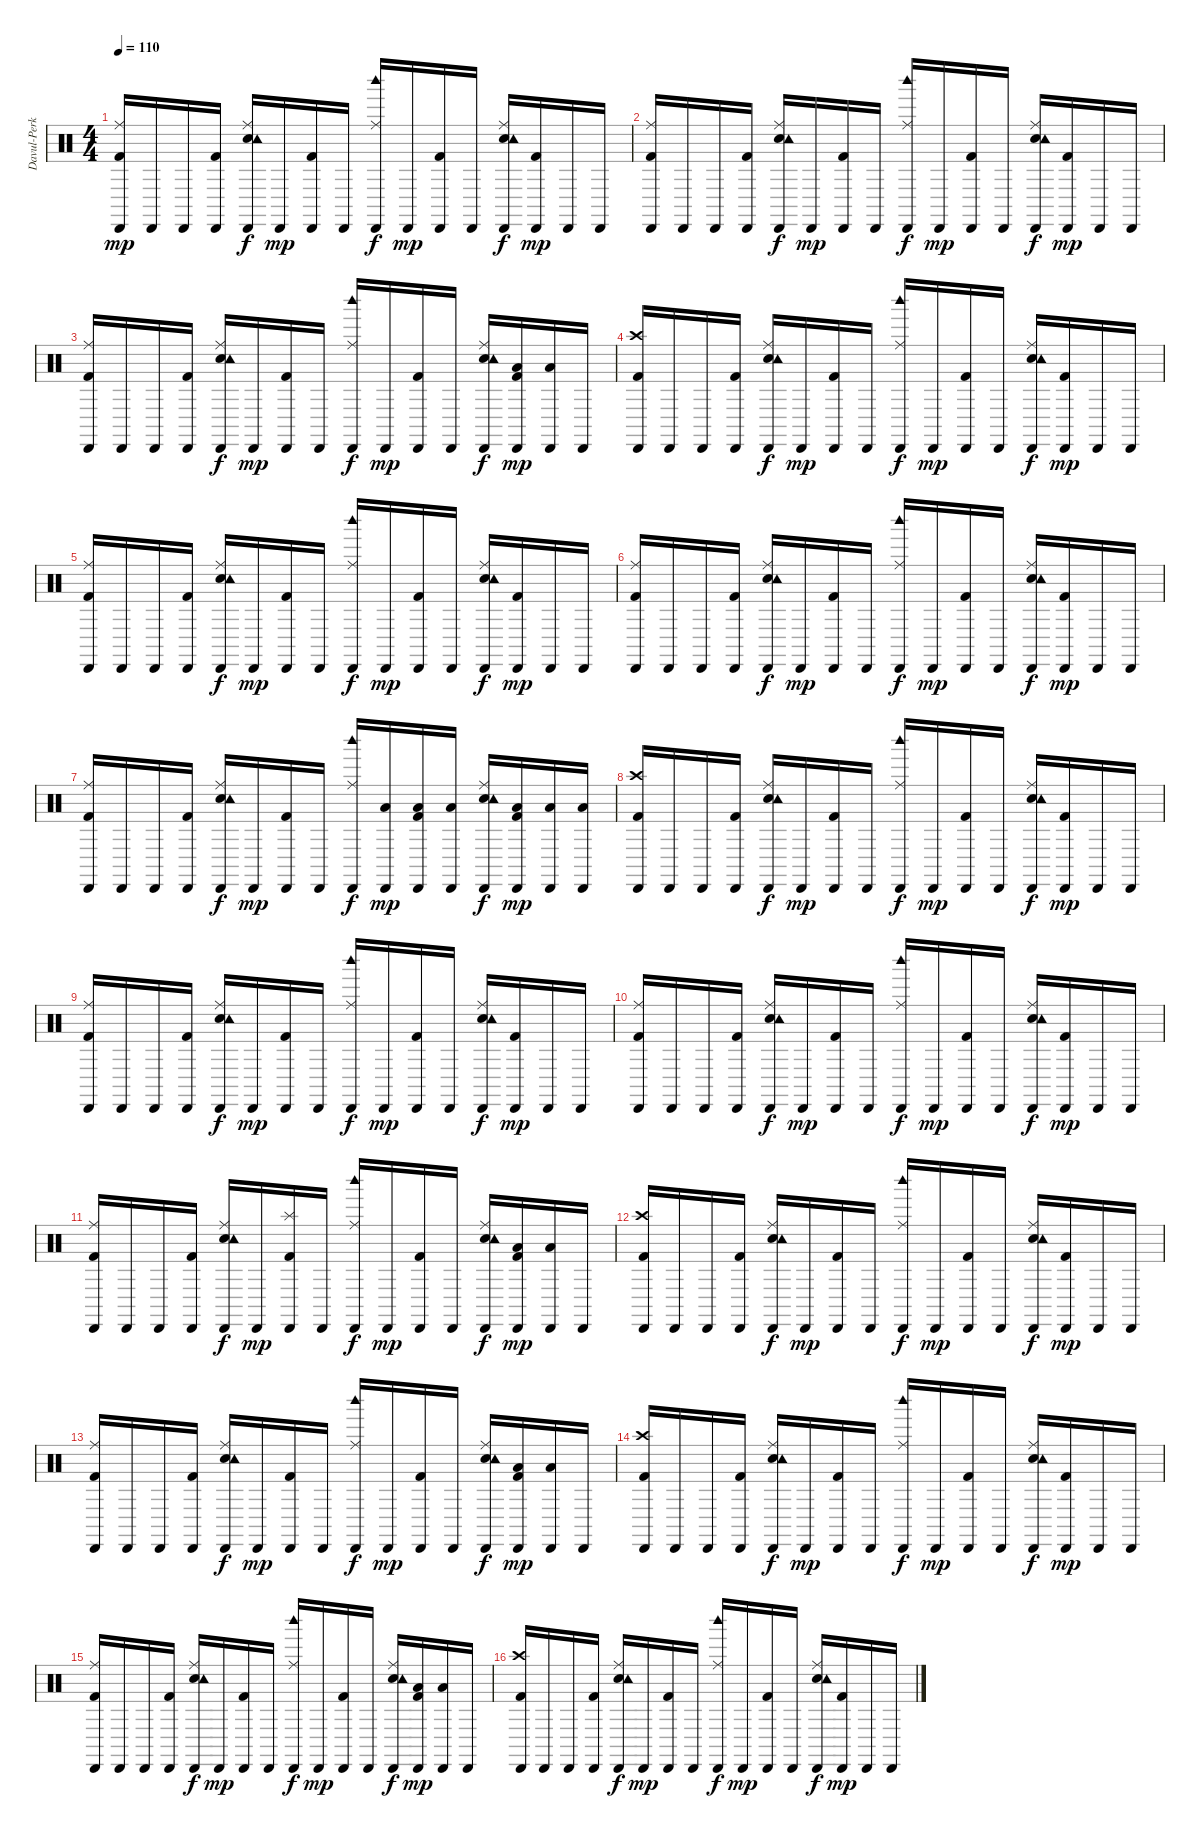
\track ("Davul-Perküsyon" "Davul-Perk") {instrument percussion}
\staff {score}
\articulation defaults
\ts (4 4)
\tempo 110
\clef neutral
\ks c
("Ride (middle)" "Cabasa (hit)" "Kick (hit) 2").16{dy mp} "Cabasa (hit)".16 "Cabasa (hit)".16 ("Cabasa (hit)" "Kick (hit) 2").16 ("Electric Snare (hit)" "Ride (middle)" "Tambourine (hit)" "Cabasa (hit)").16{dy f} "Cabasa (hit)".16{dy mp} ("Cabasa (hit)" "Kick (hit) 2").16 "Cabasa (hit)".16 ("Ride (middle)" "Woodblock high (hit)" "Cabasa (hit)").16{dy f} "Cabasa (hit)".16{dy mp} ("Cabasa (hit)" "Kick (hit) 2").16 "Cabasa (hit)".16 ("Electric Snare (hit)" "Ride (middle)" "Tambourine (hit)" "Cabasa (hit)").16{dy f} ("Cabasa (hit)" "Kick (hit) 2").16{dy mp} "Cabasa (hit)".16 "Cabasa (hit)".16 |
("Ride (middle)" "Cabasa (hit)" "Kick (hit) 2").16 "Cabasa (hit)".16 "Cabasa (hit)".16 ("Cabasa (hit)" "Kick (hit) 2").16 ("Electric Snare (hit)" "Ride (middle)" "Tambourine (hit)" "Cabasa (hit)").16{dy f} "Cabasa (hit)".16{dy mp} ("Cabasa (hit)" "Kick (hit) 2").16 "Cabasa (hit)".16 ("Ride (middle)" "Woodblock high (hit)" "Cabasa (hit)").16{dy f} "Cabasa (hit)".16{dy mp} ("Cabasa (hit)" "Kick (hit) 2").16 "Cabasa (hit)".16 ("Electric Snare (hit)" "Ride (middle)" "Tambourine (hit)" "Cabasa (hit)").16{dy f} ("Cabasa (hit)" "Kick (hit) 2").16{dy mp} "Cabasa (hit)".16 "Cabasa (hit)".16 |
("Ride (middle)" "Cabasa (hit)" "Kick (hit) 2").16 "Cabasa (hit)".16 "Cabasa (hit)".16 ("Cabasa (hit)" "Kick (hit) 2").16 ("Electric Snare (hit)" "Ride (middle)" "Tambourine (hit)" "Cabasa (hit)").16{dy f} "Cabasa (hit)".16{dy mp} ("Cabasa (hit)" "Kick (hit) 2").16 "Cabasa (hit)".16 ("Ride (middle)" "Woodblock high (hit)" "Cabasa (hit)").16{dy f} "Cabasa (hit)".16{dy mp} ("Cabasa (hit)" "Kick (hit) 2").16 "Cabasa (hit)".16 ("Electric Snare (hit)" "Ride (middle)" "Tambourine (hit)" "Cabasa (hit)").16{dy f} ("Low Tom (hit)" "Cabasa (hit)" "Kick (hit) 2").16{dy mp} ("Low Tom (hit)" "Cabasa (hit)").16 "Cabasa (hit)".16 |
("Crash high (hit)" "Cabasa (hit)" "Kick (hit) 2").16{volume 6} "Cabasa (hit)".16 "Cabasa (hit)".16 ("Cabasa (hit)" "Kick (hit) 2").16 ("Electric Snare (hit)" "Ride (middle)" "Tambourine (hit)" "Cabasa (hit)").16{dy f} "Cabasa (hit)".16{dy mp} ("Cabasa (hit)" "Kick (hit) 2").16 "Cabasa (hit)".16 ("Ride (middle)" "Woodblock high (hit)" "Cabasa (hit)").16{dy f} "Cabasa (hit)".16{dy mp} ("Cabasa (hit)" "Kick (hit) 2").16 "Cabasa (hit)".16 ("Electric Snare (hit)" "Ride (middle)" "Tambourine (hit)" "Cabasa (hit)").16{dy f} ("Cabasa (hit)" "Kick (hit) 2").16{dy mp} "Cabasa (hit)".16 "Cabasa (hit)".16 |
("Ride (middle)" "Cabasa (hit)" "Kick (hit) 2").16 "Cabasa (hit)".16 "Cabasa (hit)".16 ("Cabasa (hit)" "Kick (hit) 2").16 ("Electric Snare (hit)" "Ride (middle)" "Tambourine (hit)" "Cabasa (hit)").16{dy f} "Cabasa (hit)".16{dy mp} ("Cabasa (hit)" "Kick (hit) 2").16 "Cabasa (hit)".16 ("Ride (middle)" "Woodblock high (hit)" "Cabasa (hit)").16{dy f} "Cabasa (hit)".16{dy mp} ("Cabasa (hit)" "Kick (hit) 2").16 "Cabasa (hit)".16 ("Electric Snare (hit)" "Ride (middle)" "Tambourine (hit)" "Cabasa (hit)").16{dy f} ("Cabasa (hit)" "Kick (hit) 2").16{dy mp} "Cabasa (hit)".16 "Cabasa (hit)".16 |
("Ride (middle)" "Cabasa (hit)" "Kick (hit) 2").16 "Cabasa (hit)".16 "Cabasa (hit)".16 ("Cabasa (hit)" "Kick (hit) 2").16 ("Electric Snare (hit)" "Ride (middle)" "Tambourine (hit)" "Cabasa (hit)").16{dy f} "Cabasa (hit)".16{dy mp} ("Cabasa (hit)" "Kick (hit) 2").16 "Cabasa (hit)".16 ("Ride (middle)" "Woodblock high (hit)" "Cabasa (hit)").16{dy f} "Cabasa (hit)".16{dy mp} ("Cabasa (hit)" "Kick (hit) 2").16 "Cabasa (hit)".16 ("Electric Snare (hit)" "Ride (middle)" "Tambourine (hit)" "Cabasa (hit)").16{dy f} ("Cabasa (hit)" "Kick (hit) 2").16{dy mp} "Cabasa (hit)".16 "Cabasa (hit)".16 |
("Ride (middle)" "Cabasa (hit)" "Kick (hit) 2").16 "Cabasa (hit)".16 "Cabasa (hit)".16 ("Cabasa (hit)" "Kick (hit) 2").16 ("Electric Snare (hit)" "Ride (middle)" "Tambourine (hit)" "Cabasa (hit)").16{dy f} "Cabasa (hit)".16{dy mp} ("Cabasa (hit)" "Kick (hit) 2").16 "Cabasa (hit)".16 ("Ride (middle)" "Woodblock high (hit)" "Cabasa (hit)").16{dy f} ("Low Tom (hit)" "Cabasa (hit)").16{dy mp} ("Low Tom (hit)" "Cabasa (hit)" "Kick (hit) 2").16 ("Low Tom (hit)" "Cabasa (hit)").16 ("Electric Snare (hit)" "Ride (middle)" "Tambourine (hit)" "Cabasa (hit)").16{dy f} ("Low Tom (hit)" "Cabasa (hit)" "Kick (hit) 2").16{dy mp} ("Low Tom (hit)" "Cabasa (hit)").16 ("Low Tom (hit)" "Cabasa (hit)").16 |
("Crash high (hit)" "Cabasa (hit)" "Kick (hit) 2").16 "Cabasa (hit)".16 "Cabasa (hit)".16 ("Cabasa (hit)" "Kick (hit) 2").16 ("Electric Snare (hit)" "Ride (middle)" "Tambourine (hit)" "Cabasa (hit)").16{dy f} "Cabasa (hit)".16{dy mp} ("Cabasa (hit)" "Kick (hit) 2").16 "Cabasa (hit)".16 ("Ride (middle)" "Woodblock high (hit)" "Cabasa (hit)").16{dy f} "Cabasa (hit)".16{dy mp} ("Cabasa (hit)" "Kick (hit) 2").16 "Cabasa (hit)".16 ("Electric Snare (hit)" "Ride (middle)" "Tambourine (hit)" "Cabasa (hit)").16{dy f} ("Cabasa (hit)" "Kick (hit) 2").16{dy mp} "Cabasa (hit)".16 "Cabasa (hit)".16 |
("Ride (middle)" "Cabasa (hit)" "Kick (hit) 2").16{volume 0} "Cabasa (hit)".16 "Cabasa (hit)".16 ("Cabasa (hit)" "Kick (hit) 2").16 ("Electric Snare (hit)" "Ride (middle)" "Tambourine (hit)" "Cabasa (hit)").16{dy f} "Cabasa (hit)".16{dy mp} ("Cabasa (hit)" "Kick (hit) 2").16 "Cabasa (hit)".16 ("Ride (middle)" "Woodblock high (hit)" "Cabasa (hit)").16{dy f} "Cabasa (hit)".16{dy mp} ("Cabasa (hit)" "Kick (hit) 2").16 "Cabasa (hit)".16 ("Electric Snare (hit)" "Ride (middle)" "Tambourine (hit)" "Cabasa (hit)").16{dy f} ("Cabasa (hit)" "Kick (hit) 2").16{dy mp} "Cabasa (hit)".16 "Cabasa (hit)".16 |
("Ride (middle)" "Cabasa (hit)" "Kick (hit) 2").16 "Cabasa (hit)".16 "Cabasa (hit)".16 ("Cabasa (hit)" "Kick (hit) 2").16 ("Electric Snare (hit)" "Ride (middle)" "Tambourine (hit)" "Cabasa (hit)").16{dy f} "Cabasa (hit)".16{dy mp} ("Cabasa (hit)" "Kick (hit) 2").16 "Cabasa (hit)".16 ("Ride (middle)" "Woodblock high (hit)" "Cabasa (hit)").16{dy f} "Cabasa (hit)".16{dy mp} ("Cabasa (hit)" "Kick (hit) 2").16 "Cabasa (hit)".16 ("Electric Snare (hit)" "Ride (middle)" "Tambourine (hit)" "Cabasa (hit)").16{dy f} ("Cabasa (hit)" "Kick (hit) 2").16{dy mp} "Cabasa (hit)".16 "Cabasa (hit)".16 |
("Ride (middle)" "Cabasa (hit)" "Kick (hit) 2").16 "Cabasa (hit)".16 "Cabasa (hit)".16 ("Cabasa (hit)" "Kick (hit) 2").16 ("Electric Snare (hit)" "Ride (middle)" "Tambourine (hit)" "Cabasa (hit)").16{dy f} "Cabasa (hit)".16{dy mp} ("Splash (hit)" "Cabasa (hit)" "Kick (hit) 2").16 "Cabasa (hit)".16 ("Ride (middle)" "Woodblock high (hit)" "Cabasa (hit)").16{dy f} "Cabasa (hit)".16{dy mp} ("Cabasa (hit)" "Kick (hit) 2").16 "Cabasa (hit)".16 ("Electric Snare (hit)" "Ride (middle)" "Tambourine (hit)" "Cabasa (hit)").16{dy f} ("Low Tom (hit)" "Cabasa (hit)" "Kick (hit) 2").16{dy mp} ("Low Tom (hit)" "Cabasa (hit)").16 "Cabasa (hit)".16 |
("Crash high (hit)" "Cabasa (hit)" "Kick (hit) 2").16 "Cabasa (hit)".16 "Cabasa (hit)".16 ("Cabasa (hit)" "Kick (hit) 2").16 ("Electric Snare (hit)" "Ride (middle)" "Tambourine (hit)" "Cabasa (hit)").16{dy f} "Cabasa (hit)".16{dy mp} ("Cabasa (hit)" "Kick (hit) 2").16 "Cabasa (hit)".16 ("Ride (middle)" "Woodblock high (hit)" "Cabasa (hit)").16{dy f} "Cabasa (hit)".16{dy mp} ("Cabasa (hit)" "Kick (hit) 2").16 "Cabasa (hit)".16 ("Electric Snare (hit)" "Ride (middle)" "Tambourine (hit)" "Cabasa (hit)").16{dy f} ("Cabasa (hit)" "Kick (hit) 2").16{dy mp} "Cabasa (hit)".16 "Cabasa (hit)".16 |
("Ride (middle)" "Cabasa (hit)" "Kick (hit) 2").16 "Cabasa (hit)".16 "Cabasa (hit)".16 ("Cabasa (hit)" "Kick (hit) 2").16 ("Electric Snare (hit)" "Ride (middle)" "Tambourine (hit)" "Cabasa (hit)").16{dy f} "Cabasa (hit)".16{dy mp} ("Cabasa (hit)" "Kick (hit) 2").16 "Cabasa (hit)".16 ("Ride (middle)" "Woodblock high (hit)" "Cabasa (hit)").16{dy f} "Cabasa (hit)".16{dy mp} ("Cabasa (hit)" "Kick (hit) 2").16 "Cabasa (hit)".16 ("Electric Snare (hit)" "Ride (middle)" "Tambourine (hit)" "Cabasa (hit)").16{dy f} ("Low Tom (hit)" "Cabasa (hit)" "Kick (hit) 2").16{dy mp} ("Low Tom (hit)" "Cabasa (hit)").16 "Cabasa (hit)".16 |
("Crash high (hit)" "Cabasa (hit)" "Kick (hit) 2").16 "Cabasa (hit)".16 "Cabasa (hit)".16 ("Cabasa (hit)" "Kick (hit) 2").16 ("Electric Snare (hit)" "Ride (middle)" "Tambourine (hit)" "Cabasa (hit)").16{dy f} "Cabasa (hit)".16{dy mp} ("Cabasa (hit)" "Kick (hit) 2").16 "Cabasa (hit)".16 ("Ride (middle)" "Woodblock high (hit)" "Cabasa (hit)").16{dy f} "Cabasa (hit)".16{dy mp} ("Cabasa (hit)" "Kick (hit) 2").16 "Cabasa (hit)".16 ("Electric Snare (hit)" "Ride (middle)" "Tambourine (hit)" "Cabasa (hit)").16{dy f} ("Cabasa (hit)" "Kick (hit) 2").16{dy mp} "Cabasa (hit)".16 "Cabasa (hit)".16 |
("Ride (middle)" "Cabasa (hit)" "Kick (hit) 2").16 "Cabasa (hit)".16 "Cabasa (hit)".16 ("Cabasa (hit)" "Kick (hit) 2").16 ("Electric Snare (hit)" "Ride (middle)" "Tambourine (hit)" "Cabasa (hit)").16{dy f} "Cabasa (hit)".16{dy mp} ("Cabasa (hit)" "Kick (hit) 2").16 "Cabasa (hit)".16 ("Ride (middle)" "Woodblock high (hit)" "Cabasa (hit)").16{dy f} "Cabasa (hit)".16{dy mp} ("Cabasa (hit)" "Kick (hit) 2").16 "Cabasa (hit)".16 ("Electric Snare (hit)" "Ride (middle)" "Tambourine (hit)" "Cabasa (hit)").16{dy f} ("Low Tom (hit)" "Cabasa (hit)" "Kick (hit) 2").16{dy mp} ("Low Tom (hit)" "Cabasa (hit)").16 "Cabasa (hit)".16 |
("Crash high (hit)" "Cabasa (hit)" "Kick (hit) 2").16 "Cabasa (hit)".16 "Cabasa (hit)".16 ("Cabasa (hit)" "Kick (hit) 2").16 ("Electric Snare (hit)" "Ride (middle)" "Tambourine (hit)" "Cabasa (hit)").16{dy f} "Cabasa (hit)".16{dy mp} ("Cabasa (hit)" "Kick (hit) 2").16 "Cabasa (hit)".16 ("Ride (middle)" "Woodblock high (hit)" "Cabasa (hit)").16{dy f} "Cabasa (hit)".16{dy mp} ("Cabasa (hit)" "Kick (hit) 2").16 "Cabasa (hit)".16 ("Electric Snare (hit)" "Ride (middle)" "Tambourine (hit)" "Cabasa (hit)").16{dy f} ("Cabasa (hit)" "Kick (hit) 2").16{dy mp} "Cabasa (hit)".16 "Cabasa (hit)".16
